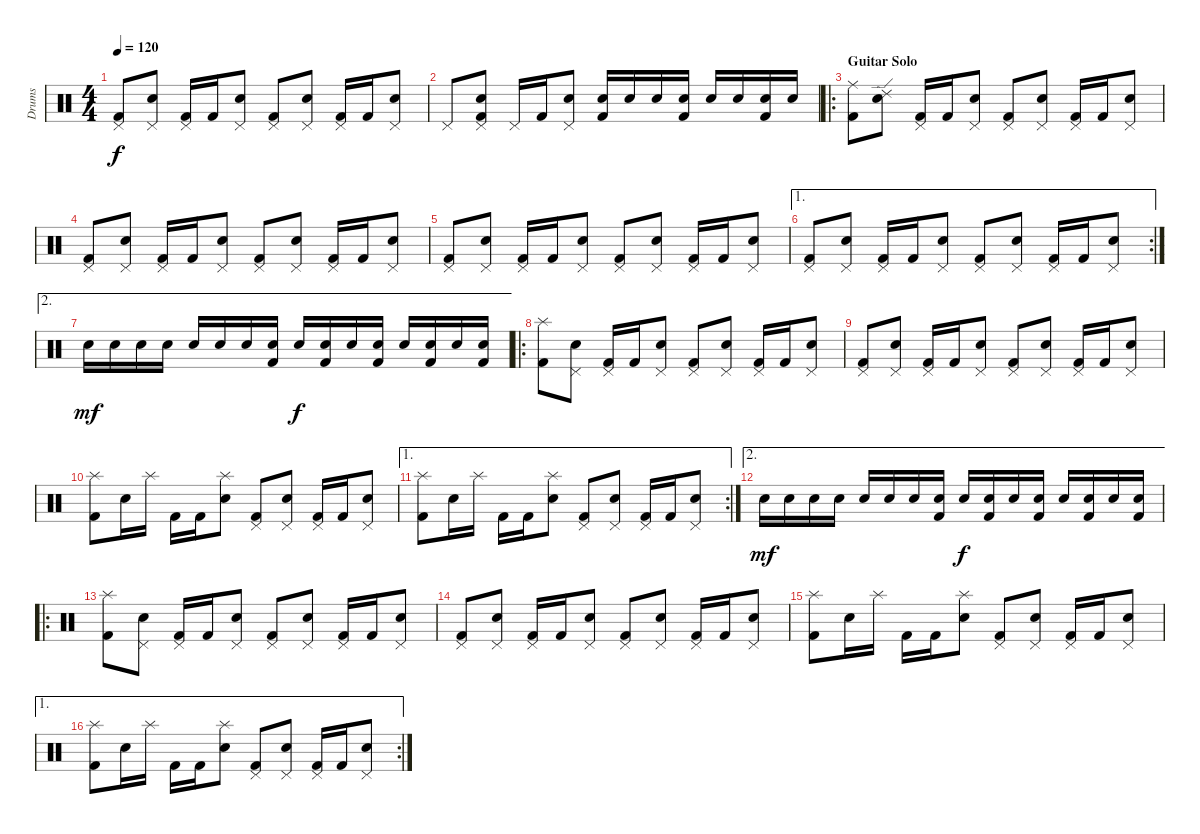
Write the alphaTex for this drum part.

\track ("Drums" "Drums") {instrument percussion}
\staff {score}
\articulation defaults
\ts (4 4)
\tempo 120
\clef neutral
\ks c
("Pedal Hi-Hat (hit)" "Kick (hit) 2").8{dy f} ("Pedal Hi-Hat (hit)" "Electric Snare (hit)").8 ("Pedal Hi-Hat (hit)" "Kick (hit) 2").16 "Kick (hit) 2".16 ("Pedal Hi-Hat (hit)" "Electric Snare (hit)").8 ("Pedal Hi-Hat (hit)" "Kick (hit) 2").8 ("Pedal Hi-Hat (hit)" "Electric Snare (hit)").8 ("Pedal Hi-Hat (hit)" "Kick (hit) 2").16 "Kick (hit) 2".16 ("Pedal Hi-Hat (hit)" "Electric Snare (hit)").8 |
"Pedal Hi-Hat (hit)".8 ("Pedal Hi-Hat (hit)" "Electric Snare (hit)" "Kick (hit) 2").8 "Pedal Hi-Hat (hit)".16 "Kick (hit) 2".16 ("Pedal Hi-Hat (hit)" "Electric Snare (hit)").8 ("Electric Snare (hit)" "Kick (hit) 2").16 "Electric Snare (hit)".16 "Electric Snare (hit)".16 ("Electric Snare (hit)" "Kick (hit) 2").16 "Electric Snare (hit)".16 "Electric Snare (hit)".16 ("Electric Snare (hit)" "Kick (hit) 2").16 "Electric Snare (hit)".16 |
\ro
\section ("" "Guitar Solo")
("Ride (middle)" "Kick (hit) 2").8 ("Ride (edge) 2" "Electric Snare (hit)").8 ("Pedal Hi-Hat (hit)" "Kick (hit) 2").16 "Kick (hit) 2".16 ("Pedal Hi-Hat (hit)" "Electric Snare (hit)").8 ("Pedal Hi-Hat (hit)" "Kick (hit) 2").8 ("Pedal Hi-Hat (hit)" "Electric Snare (hit)").8 ("Pedal Hi-Hat (hit)" "Kick (hit) 2").16 "Kick (hit) 2".16 ("Pedal Hi-Hat (hit)" "Electric Snare (hit)").8 |
("Pedal Hi-Hat (hit)" "Kick (hit) 2").8 ("Pedal Hi-Hat (hit)" "Electric Snare (hit)").8 ("Pedal Hi-Hat (hit)" "Kick (hit) 2").16 "Kick (hit) 2".16 ("Pedal Hi-Hat (hit)" "Electric Snare (hit)").8 ("Pedal Hi-Hat (hit)" "Kick (hit) 2").8 ("Pedal Hi-Hat (hit)" "Electric Snare (hit)").8 ("Pedal Hi-Hat (hit)" "Kick (hit) 2").16 "Kick (hit) 2".16 ("Pedal Hi-Hat (hit)" "Electric Snare (hit)").8 |
("Pedal Hi-Hat (hit)" "Kick (hit) 2").8 ("Pedal Hi-Hat (hit)" "Electric Snare (hit)").8 ("Pedal Hi-Hat (hit)" "Kick (hit) 2").16 "Kick (hit) 2".16 ("Pedal Hi-Hat (hit)" "Electric Snare (hit)").8 ("Pedal Hi-Hat (hit)" "Kick (hit) 2").8 ("Pedal Hi-Hat (hit)" "Electric Snare (hit)").8 ("Pedal Hi-Hat (hit)" "Kick (hit) 2").16 "Kick (hit) 2".16 ("Pedal Hi-Hat (hit)" "Electric Snare (hit)").8 |
\ae 1
\rc 2
("Pedal Hi-Hat (hit)" "Kick (hit) 2").8 ("Pedal Hi-Hat (hit)" "Electric Snare (hit)").8 ("Pedal Hi-Hat (hit)" "Kick (hit) 2").16 "Kick (hit) 2".16 ("Pedal Hi-Hat (hit)" "Electric Snare (hit)").8 ("Pedal Hi-Hat (hit)" "Kick (hit) 2").8 ("Pedal Hi-Hat (hit)" "Electric Snare (hit)").8 ("Pedal Hi-Hat (hit)" "Kick (hit) 2").16 "Kick (hit) 2".16 ("Pedal Hi-Hat (hit)" "Electric Snare (hit)").8 |
\ae 2 "Electric Snare (hit)".16{dy mf} "Electric Snare (hit)".16 "Electric Snare (hit)".16 "Electric Snare (hit)".16 "Electric Snare (hit)".16 "Electric Snare (hit)".16 "Electric Snare (hit)".16
("Electric Snare (hit)" "Kick (hit) 2").16 "Electric Snare (hit)".16{dy f} ("Electric Snare (hit)" "Kick (hit) 2").16 "Electric Snare (hit)".16 ("Electric Snare (hit)" "Kick (hit) 2").16 "Electric Snare (hit)".16 ("Electric Snare (hit)" "Kick (hit) 2").16 "Electric Snare (hit)".16 ("Electric Snare (hit)" "Kick (hit) 2").16 |
\ro
("Splash (hit)" "Kick (hit) 2").8 ("Pedal Hi-Hat (hit)" "Electric Snare (hit)").8 ("Pedal Hi-Hat (hit)" "Kick (hit) 2").16 "Kick (hit) 2".16 ("Pedal Hi-Hat (hit)" "Electric Snare (hit)").8 ("Pedal Hi-Hat (hit)" "Kick (hit) 2").8 ("Pedal Hi-Hat (hit)" "Electric Snare (hit)").8 ("Pedal Hi-Hat (hit)" "Kick (hit) 2").16 "Kick (hit) 2".16 ("Pedal Hi-Hat (hit)" "Electric Snare (hit)").8 |
("Pedal Hi-Hat (hit)" "Kick (hit) 2").8 ("Pedal Hi-Hat (hit)" "Electric Snare (hit)").8 ("Pedal Hi-Hat (hit)" "Kick (hit) 2").16 "Kick (hit) 2".16 ("Pedal Hi-Hat (hit)" "Electric Snare (hit)").8 ("Pedal Hi-Hat (hit)" "Kick (hit) 2").8 ("Pedal Hi-Hat (hit)" "Electric Snare (hit)").8 ("Pedal Hi-Hat (hit)" "Kick (hit) 2").16 "Kick (hit) 2".16 ("Pedal Hi-Hat (hit)" "Electric Snare (hit)").8 |
("Splash (hit)" "Kick (hit) 2").8 "Electric Snare (hit)".16 "Splash (hit)".16 "Kick (hit) 2".16 "Kick (hit) 2".16 ("Splash (hit)" "Electric Snare (hit)").8 ("Pedal Hi-Hat (hit)" "Kick (hit) 2").8 ("Pedal Hi-Hat (hit)" "Electric Snare (hit)").8 ("Pedal Hi-Hat (hit)" "Kick (hit) 2").16 "Kick (hit) 2".16 ("Pedal Hi-Hat (hit)" "Electric Snare (hit)").8 |
\ae 1
\rc 2
("Splash (hit)" "Kick (hit) 2").8 "Electric Snare (hit)".16 "Splash (hit)".16 "Kick (hit) 2".16 "Kick (hit) 2".16 ("Splash (hit)" "Electric Snare (hit)").8 ("Pedal Hi-Hat (hit)" "Kick (hit) 2").8 ("Pedal Hi-Hat (hit)" "Electric Snare (hit)").8 ("Pedal Hi-Hat (hit)" "Kick (hit) 2").16 "Kick (hit) 2".16 ("Pedal Hi-Hat (hit)" "Electric Snare (hit)").8 |
\ae 2 "Electric Snare (hit)".16{dy mf} "Electric Snare (hit)".16 "Electric Snare (hit)".16 "Electric Snare (hit)".16 "Electric Snare (hit)".16 "Electric Snare (hit)".16 "Electric Snare (hit)".16
("Electric Snare (hit)" "Kick (hit) 2").16 "Electric Snare (hit)".16{dy f} ("Electric Snare (hit)" "Kick (hit) 2").16 "Electric Snare (hit)".16 ("Electric Snare (hit)" "Kick (hit) 2").16 "Electric Snare (hit)".16 ("Electric Snare (hit)" "Kick (hit) 2").16 "Electric Snare (hit)".16 ("Electric Snare (hit)" "Kick (hit) 2").16 |
\ro
("Splash (hit)" "Kick (hit) 2").8 ("Pedal Hi-Hat (hit)" "Electric Snare (hit)").8 ("Pedal Hi-Hat (hit)" "Kick (hit) 2").16 "Kick (hit) 2".16 ("Pedal Hi-Hat (hit)" "Electric Snare (hit)").8 ("Pedal Hi-Hat (hit)" "Kick (hit) 2").8 ("Pedal Hi-Hat (hit)" "Electric Snare (hit)").8 ("Pedal Hi-Hat (hit)" "Kick (hit) 2").16 "Kick (hit) 2".16 ("Pedal Hi-Hat (hit)" "Electric Snare (hit)").8 |
("Pedal Hi-Hat (hit)" "Kick (hit) 2").8 ("Pedal Hi-Hat (hit)" "Electric Snare (hit)").8 ("Pedal Hi-Hat (hit)" "Kick (hit) 2").16 "Kick (hit) 2".16 ("Pedal Hi-Hat (hit)" "Electric Snare (hit)").8 ("Pedal Hi-Hat (hit)" "Kick (hit) 2").8 ("Pedal Hi-Hat (hit)" "Electric Snare (hit)").8 ("Pedal Hi-Hat (hit)" "Kick (hit) 2").16 "Kick (hit) 2".16 ("Pedal Hi-Hat (hit)" "Electric Snare (hit)").8 |
("Splash (hit)" "Kick (hit) 2").8 "Electric Snare (hit)".16 "Splash (hit)".16 "Kick (hit) 2".16 "Kick (hit) 2".16 ("Splash (hit)" "Electric Snare (hit)").8 ("Pedal Hi-Hat (hit)" "Kick (hit) 2").8 ("Pedal Hi-Hat (hit)" "Electric Snare (hit)").8 ("Pedal Hi-Hat (hit)" "Kick (hit) 2").16 "Kick (hit) 2".16 ("Pedal Hi-Hat (hit)" "Electric Snare (hit)").8 |
\ae 1
\rc 2
("Splash (hit)" "Kick (hit) 2").8 "Electric Snare (hit)".16 "Splash (hit)".16 "Kick (hit) 2".16 "Kick (hit) 2".16 ("Splash (hit)" "Electric Snare (hit)").8 ("Pedal Hi-Hat (hit)" "Kick (hit) 2").8 ("Pedal Hi-Hat (hit)" "Electric Snare (hit)").8 ("Pedal Hi-Hat (hit)" "Kick (hit) 2").16 "Kick (hit) 2".16 ("Pedal Hi-Hat (hit)" "Electric Snare (hit)").8
